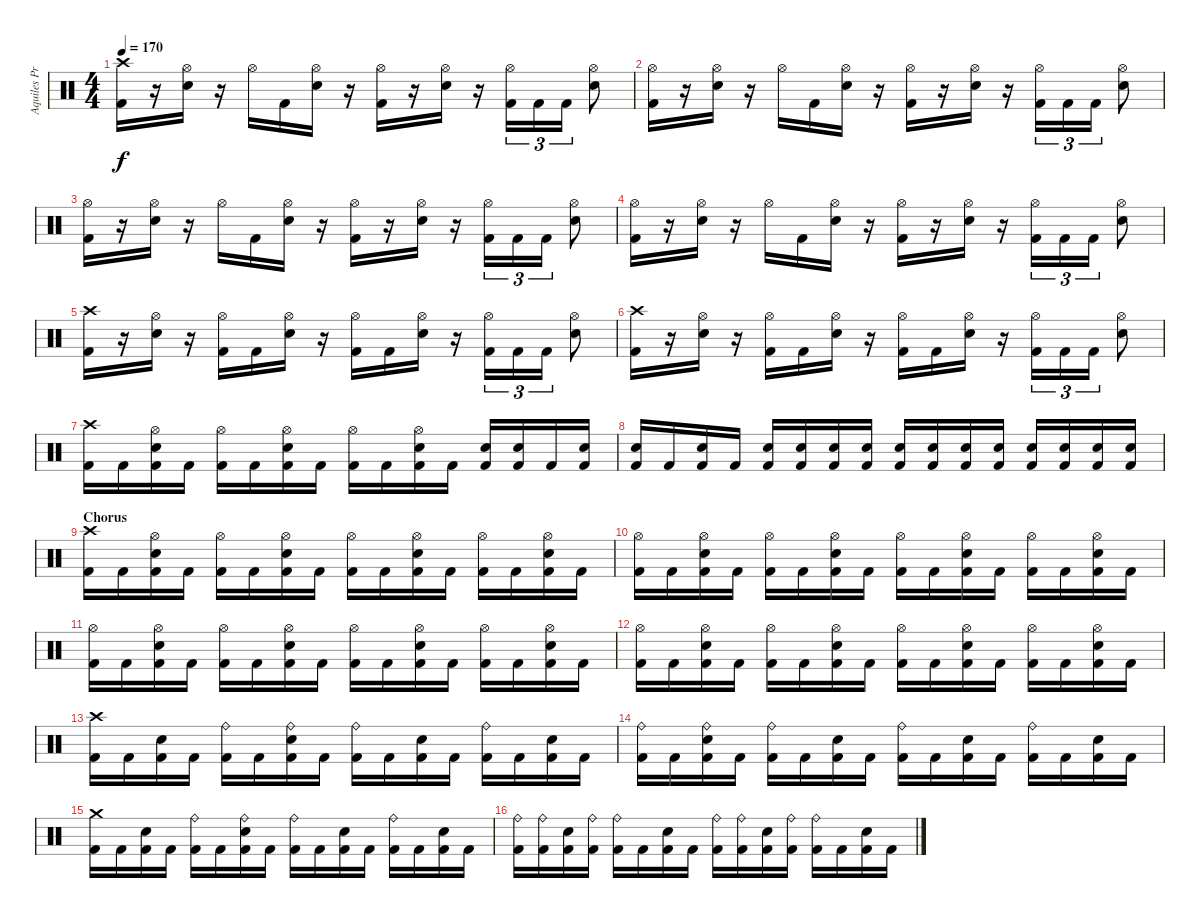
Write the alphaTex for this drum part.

\track ("Aquiles Priester" "Aquiles Pr") {instrument percussion}
\staff {score}
\articulation defaults
\ts (4 4)
\tempo 170
\clef neutral
\ks c
("Kick (hit) 2" "Crash high (hit)").16{dy f} r.16 ("Electric Snare (hit)" "Hi-Hat (open)").16 r.16 "Hi-Hat (open)".16 "Kick (hit) 2".16 ("Electric Snare (hit)" "Hi-Hat (open)").16 r.16 ("Kick (hit) 2" "Hi-Hat (open)").16 r.16 ("Electric Snare (hit)" "Hi-Hat (open)").16 r.16 ("Kick (hit) 2" "Hi-Hat (open)").16{tu (3 2)} "Kick (hit) 2".16{tu (3 2)} "Kick (hit) 2".16{tu (3 2)} ("Hi-Hat (open)" "Electric Snare (hit)").8 |
("Kick (hit) 2" "Hi-Hat (open)").16 r.16 ("Electric Snare (hit)" "Hi-Hat (open)").16 r.16 "Hi-Hat (open)".16 "Kick (hit) 2".16 ("Electric Snare (hit)" "Hi-Hat (open)").16 r.16 ("Kick (hit) 2" "Hi-Hat (open)").16 r.16 ("Electric Snare (hit)" "Hi-Hat (open)").16 r.16 ("Kick (hit) 2" "Hi-Hat (open)").16{tu (3 2)} "Kick (hit) 2".16{tu (3 2)} "Kick (hit) 2".16{tu (3 2)} ("Hi-Hat (open)" "Electric Snare (hit)").8 |
("Kick (hit) 2" "Hi-Hat (open)").16 r.16 ("Electric Snare (hit)" "Hi-Hat (open)").16 r.16 "Hi-Hat (open)".16 "Kick (hit) 2".16 ("Electric Snare (hit)" "Hi-Hat (open)").16 r.16 ("Kick (hit) 2" "Hi-Hat (open)").16 r.16 ("Electric Snare (hit)" "Hi-Hat (open)").16 r.16 ("Kick (hit) 2" "Hi-Hat (open)").16{tu (3 2)} "Kick (hit) 2".16{tu (3 2)} "Kick (hit) 2".16{tu (3 2)} ("Hi-Hat (open)" "Electric Snare (hit)").8 |
("Kick (hit) 2" "Hi-Hat (open)").16 r.16 ("Electric Snare (hit)" "Hi-Hat (open)").16 r.16 "Hi-Hat (open)".16 "Kick (hit) 2".16 ("Electric Snare (hit)" "Hi-Hat (open)").16 r.16 ("Kick (hit) 2" "Hi-Hat (open)").16 r.16 ("Electric Snare (hit)" "Hi-Hat (open)").16 r.16 ("Kick (hit) 2" "Hi-Hat (open)").16{tu (3 2)} "Kick (hit) 2".16{tu (3 2)} "Kick (hit) 2".16{tu (3 2)} ("Hi-Hat (open)" "Electric Snare (hit)").8 |
("Kick (hit) 2" "Crash high (hit)").16 r.16 ("Electric Snare (hit)" "Hi-Hat (open)").16 r.16 ("Kick (hit) 2" "Hi-Hat (open)").16 "Kick (hit) 2".16 ("Electric Snare (hit)" "Hi-Hat (open)").16 r.16 ("Kick (hit) 2" "Hi-Hat (open)").16 "Kick (hit) 2".16 ("Electric Snare (hit)" "Hi-Hat (open)").16 r.16 ("Kick (hit) 2" "Hi-Hat (open)").16{tu (3 2)} "Kick (hit) 2".16{tu (3 2)} "Kick (hit) 2".16{tu (3 2)} ("Hi-Hat (open)" "Electric Snare (hit)").8 |
("Kick (hit) 2" "Crash high (hit)").16 r.16 ("Electric Snare (hit)" "Hi-Hat (open)").16 r.16 ("Kick (hit) 2" "Hi-Hat (open)").16 "Kick (hit) 2".16 ("Electric Snare (hit)" "Hi-Hat (open)").16 r.16 ("Kick (hit) 2" "Hi-Hat (open)").16 "Kick (hit) 2".16 ("Electric Snare (hit)" "Hi-Hat (open)").16 r.16 ("Kick (hit) 2" "Hi-Hat (open)").16{tu (3 2)} "Kick (hit) 2".16{tu (3 2)} "Kick (hit) 2".16{tu (3 2)} ("Hi-Hat (open)" "Electric Snare (hit)").8 |
("Crash high (hit)" "Kick (hit) 2").16 "Kick (hit) 2".16 ("Hi-Hat (open)" "Electric Snare (hit)" "Kick (hit) 2").16 "Kick (hit) 2".16 ("Hi-Hat (open)" "Kick (hit) 2").16 "Kick (hit) 2".16 ("Hi-Hat (open)" "Electric Snare (hit)" "Kick (hit) 2").16 "Kick (hit) 2".16 ("Hi-Hat (open)" "Kick (hit) 2").16 "Kick (hit) 2".16 ("Hi-Hat (open)" "Electric Snare (hit)" "Kick (hit) 2").16 "Kick (hit) 2".16 ("Electric Snare (hit)" "Kick (hit) 2").16 ("Electric Snare (hit)" "Kick (hit) 2").16 "Kick (hit) 2".16 ("Electric Snare (hit)" "Kick (hit) 2").16 |
("Electric Snare (hit)" "Kick (hit) 2").16 "Kick (hit) 2".16 ("Electric Snare (hit)" "Kick (hit) 2").16 "Kick (hit) 2".16 ("Electric Snare (hit)" "Kick (hit) 2").16 ("Electric Snare (hit)" "Kick (hit) 2").16 ("Electric Snare (hit)" "Kick (hit) 2").16 ("Electric Snare (hit)" "Kick (hit) 2").16 ("Electric Snare (hit)" "Kick (hit) 2").16 ("Electric Snare (hit)" "Kick (hit) 2").16 ("Electric Snare (hit)" "Kick (hit) 2").16 ("Electric Snare (hit)" "Kick (hit) 2").16 ("Electric Snare (hit)" "Kick (hit) 2").16 ("Electric Snare (hit)" "Kick (hit) 2").16 ("Electric Snare (hit)" "Kick (hit) 2").16 ("Electric Snare (hit)" "Kick (hit) 2").16 |
\section ("" "Chorus")
("Crash high (hit)" "Kick (hit) 2").16 "Kick (hit) 2".16 ("Hi-Hat (open)" "Electric Snare (hit)" "Kick (hit) 2").16 "Kick (hit) 2".16 ("Hi-Hat (open)" "Kick (hit) 2").16 "Kick (hit) 2".16 ("Hi-Hat (open)" "Electric Snare (hit)" "Kick (hit) 2").16 "Kick (hit) 2".16 ("Hi-Hat (open)" "Kick (hit) 2").16 "Kick (hit) 2".16 ("Hi-Hat (open)" "Electric Snare (hit)" "Kick (hit) 2").16 "Kick (hit) 2".16 ("Hi-Hat (open)" "Kick (hit) 2").16 "Kick (hit) 2".16 ("Hi-Hat (open)" "Electric Snare (hit)" "Kick (hit) 2").16 "Kick (hit) 2".16 |
("Hi-Hat (open)" "Kick (hit) 2").16 "Kick (hit) 2".16 ("Hi-Hat (open)" "Electric Snare (hit)" "Kick (hit) 2").16 "Kick (hit) 2".16 ("Hi-Hat (open)" "Kick (hit) 2").16 "Kick (hit) 2".16 ("Hi-Hat (open)" "Electric Snare (hit)" "Kick (hit) 2").16 "Kick (hit) 2".16 ("Hi-Hat (open)" "Kick (hit) 2").16 "Kick (hit) 2".16 ("Hi-Hat (open)" "Electric Snare (hit)" "Kick (hit) 2").16 "Kick (hit) 2".16 ("Hi-Hat (open)" "Kick (hit) 2").16 "Kick (hit) 2".16 ("Hi-Hat (open)" "Electric Snare (hit)" "Kick (hit) 2").16 "Kick (hit) 2".16 |
("Hi-Hat (open)" "Kick (hit) 2").16 "Kick (hit) 2".16 ("Hi-Hat (open)" "Electric Snare (hit)" "Kick (hit) 2").16 "Kick (hit) 2".16 ("Hi-Hat (open)" "Kick (hit) 2").16 "Kick (hit) 2".16 ("Hi-Hat (open)" "Electric Snare (hit)" "Kick (hit) 2").16 "Kick (hit) 2".16 ("Hi-Hat (open)" "Kick (hit) 2").16 "Kick (hit) 2".16 ("Hi-Hat (open)" "Electric Snare (hit)" "Kick (hit) 2").16 "Kick (hit) 2".16 ("Hi-Hat (open)" "Kick (hit) 2").16 "Kick (hit) 2".16 ("Hi-Hat (open)" "Electric Snare (hit)" "Kick (hit) 2").16 "Kick (hit) 2".16 |
("Hi-Hat (open)" "Kick (hit) 2").16 "Kick (hit) 2".16 ("Hi-Hat (open)" "Electric Snare (hit)" "Kick (hit) 2").16 "Kick (hit) 2".16 ("Hi-Hat (open)" "Kick (hit) 2").16 "Kick (hit) 2".16 ("Hi-Hat (open)" "Electric Snare (hit)" "Kick (hit) 2").16 "Kick (hit) 2".16 ("Hi-Hat (open)" "Kick (hit) 2").16 "Kick (hit) 2".16 ("Hi-Hat (open)" "Electric Snare (hit)" "Kick (hit) 2").16 "Kick (hit) 2".16 ("Hi-Hat (open)" "Kick (hit) 2").16 "Kick (hit) 2".16 ("Hi-Hat (open)" "Electric Snare (hit)" "Kick (hit) 2").16 "Kick (hit) 2".16 |
("Crash high (hit)" "Kick (hit) 2").16 "Kick (hit) 2".16 ("Electric Snare (hit)" "Kick (hit) 2").16 "Kick (hit) 2".16 ("Ride (bell)" "Kick (hit) 2").16 "Kick (hit) 2".16 ("Ride (bell)" "Electric Snare (hit)" "Kick (hit) 2").16 "Kick (hit) 2".16 ("Ride (bell)" "Kick (hit) 2").16 "Kick (hit) 2".16 ("Electric Snare (hit)" "Kick (hit) 2").16 "Kick (hit) 2".16 ("Ride (bell)" "Kick (hit) 2").16 "Kick (hit) 2".16 ("Electric Snare (hit)" "Kick (hit) 2").16 "Kick (hit) 2".16 |
("Ride (bell)" "Kick (hit) 2").16 "Kick (hit) 2".16 ("Ride (bell)" "Electric Snare (hit)" "Kick (hit) 2").16 "Kick (hit) 2".16 ("Ride (bell)" "Kick (hit) 2").16 "Kick (hit) 2".16 ("Electric Snare (hit)" "Kick (hit) 2").16 "Kick (hit) 2".16 ("Ride (bell)" "Kick (hit) 2").16 "Kick (hit) 2".16 ("Electric Snare (hit)" "Kick (hit) 2").16 "Kick (hit) 2".16 ("Ride (bell)" "Kick (hit) 2").16 "Kick (hit) 2".16 ("Electric Snare (hit)" "Kick (hit) 2").16 "Kick (hit) 2".16 |
("Crash medium (hit)" "Kick (hit) 2").16 "Kick (hit) 2".16 ("Electric Snare (hit)" "Kick (hit) 2").16 "Kick (hit) 2".16 ("Ride (bell)" "Kick (hit) 2").16 "Kick (hit) 2".16 ("Ride (bell)" "Electric Snare (hit)" "Kick (hit) 2").16 "Kick (hit) 2".16 ("Ride (bell)" "Kick (hit) 2").16 "Kick (hit) 2".16 ("Electric Snare (hit)" "Kick (hit) 2").16 "Kick (hit) 2".16 ("Ride (bell)" "Kick (hit) 2").16 "Kick (hit) 2".16 ("Electric Snare (hit)" "Kick (hit) 2").16 "Kick (hit) 2".16 |
("Ride (bell)" "Kick (hit) 2").16 ("Ride (bell)" "Kick (hit) 2").16 ("Electric Snare (hit)" "Kick (hit) 2").16 ("Ride (bell)" "Kick (hit) 2").16 ("Ride (bell)" "Kick (hit) 2").16 "Kick (hit) 2".16 ("Electric Snare (hit)" "Kick (hit) 2").16 "Kick (hit) 2".16 ("Ride (bell)" "Kick (hit) 2").16 ("Ride (bell)" "Kick (hit) 2").16 ("Electric Snare (hit)" "Kick (hit) 2").16 ("Ride (bell)" "Kick (hit) 2").16 ("Ride (bell)" "Kick (hit) 2").16 "Kick (hit) 2".16 ("Electric Snare (hit)" "Kick (hit) 2").16 "Kick (hit) 2".16
